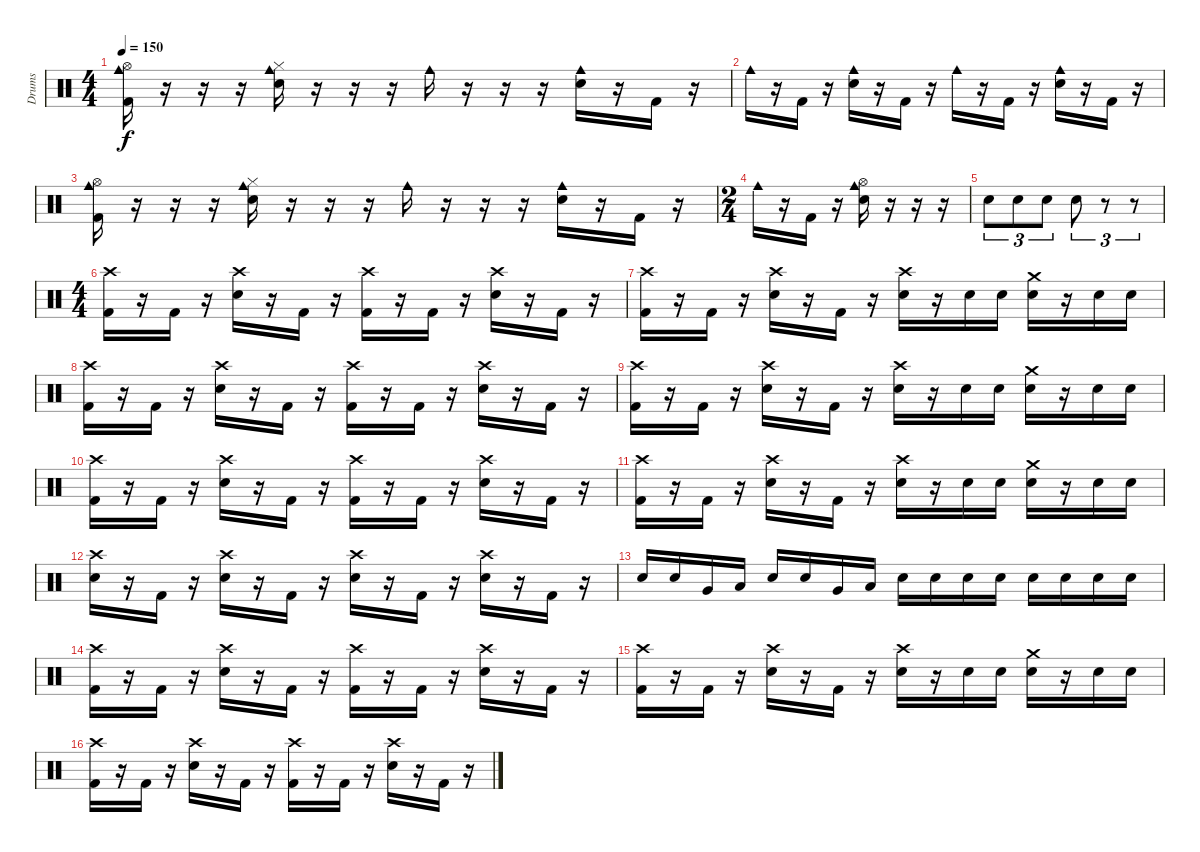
\track ("Drums" "Drums") {instrument percussion}
\staff {score}
\articulation defaults
\ts (4 4)
\tempo 150
\clef neutral
\ks c
("Cowbell medium (hit)" "Hi-Hat (open)" "Kick (hit) 2").16{dy f} r.16 r.16 r.16 ("Cowbell medium (hit)" "Hi-Hat (closed)" "Snare (hit) 2").16 r.16 r.16 r.16 "Cowbell medium (hit)".16 r.16 r.16 r.16 ("Cowbell medium (hit)" "Snare (hit) 2").16 r.16 "Kick (hit) 2".16 r.16 |
"Cowbell medium (hit)".16 r.16 "Kick (hit) 2".16 r.16 ("Cowbell medium (hit)" "Snare (hit) 2").16 r.16 "Kick (hit) 2".16 r.16 "Cowbell medium (hit)".16 r.16 "Kick (hit) 2".16 r.16 ("Cowbell medium (hit)" "Snare (hit) 2").16 r.16 "Kick (hit) 2".16 r.16 |
("Cowbell medium (hit)" "Hi-Hat (open)" "Kick (hit) 2").16 r.16 r.16 r.16 ("Cowbell medium (hit)" "Hi-Hat (closed)" "Snare (hit) 2").16 r.16 r.16 r.16 "Cowbell medium (hit)".16 r.16 r.16 r.16 ("Cowbell medium (hit)" "Snare (hit) 2").16 r.16 "Kick (hit) 2".16 r.16 |
\ts (2 4)
"Cowbell medium (hit)".16 r.16 "Kick (hit) 2".16 r.16 ("Cowbell medium (hit)" "Hi-Hat (open)" "Snare (hit) 2").16 r.16 r.16 r.16 |
"Snare (hit) 2".8{tu (3 2)} "Snare (hit) 2".8{tu (3 2)} "Snare (hit) 2".8{tu (3 2)} "Snare (hit) 2".8{tu (3 2)} r.8{tu (3 2)} r.8{tu (3 2)} |
\ts (4 4)
("Crash high (hit)" "Kick (hit) 2").16 r.16 "Kick (hit) 2".16 r.16 ("Crash high (hit)" "Snare (hit) 2").16 r.16 "Kick (hit) 2".16 r.16 ("Crash high (hit)" "Kick (hit) 2").16 r.16 "Kick (hit) 2".16 r.16 ("Crash high (hit)" "Snare (hit) 2").16 r.16 "Kick (hit) 2".16 r.16 |
("Crash high (hit)" "Kick (hit) 2").16 r.16 "Kick (hit) 2".16 r.16 ("Crash high (hit)" "Snare (hit) 2").16 r.16 "Kick (hit) 2".16 r.16 ("Crash high (hit)" "Snare (hit) 2").16 r.16 "Snare (hit) 2".16 "Snare (hit) 2".16 ("Crash medium (hit)" "Snare (hit) 2").16 r.16 "Snare (hit) 2".16 "Snare (hit) 2".16 |
("Crash high (hit)" "Kick (hit) 2").16 r.16 "Kick (hit) 2".16 r.16 ("Crash high (hit)" "Snare (hit) 2").16 r.16 "Kick (hit) 2".16 r.16 ("Crash high (hit)" "Kick (hit) 2").16 r.16 "Kick (hit) 2".16 r.16 ("Crash high (hit)" "Snare (hit) 2").16 r.16 "Kick (hit) 2".16 r.16 |
("Crash high (hit)" "Kick (hit) 2").16 r.16 "Kick (hit) 2".16 r.16 ("Crash high (hit)" "Snare (hit) 2").16 r.16 "Kick (hit) 2".16 r.16 ("Crash high (hit)" "Snare (hit) 2").16 r.16 "Snare (hit) 2".16 "Snare (hit) 2".16 ("Crash medium (hit)" "Snare (hit) 2").16 r.16 "Snare (hit) 2".16 "Snare (hit) 2".16 |
("Crash high (hit)" "Kick (hit) 2").16 r.16 "Kick (hit) 2".16 r.16 ("Crash high (hit)" "Snare (hit) 2").16 r.16 "Kick (hit) 2".16 r.16 ("Crash high (hit)" "Kick (hit) 2").16 r.16 "Kick (hit) 2".16 r.16 ("Crash high (hit)" "Snare (hit) 2").16 r.16 "Kick (hit) 2".16 r.16 |
("Crash high (hit)" "Kick (hit) 2").16 r.16 "Kick (hit) 2".16 r.16 ("Crash high (hit)" "Snare (hit) 2").16 r.16 "Kick (hit) 2".16 r.16 ("Crash high (hit)" "Snare (hit) 2").16 r.16 "Snare (hit) 2".16 "Snare (hit) 2".16 ("Crash medium (hit)" "Snare (hit) 2").16 r.16 "Snare (hit) 2".16 "Snare (hit) 2".16 |
("Crash high (hit)" "Snare (hit) 2").16 r.16 "Kick (hit) 2".16 r.16 ("Crash high (hit)" "Snare (hit) 2").16 r.16 "Kick (hit) 2".16 r.16 ("Crash high (hit)" "Snare (hit) 2").16 r.16 "Kick (hit) 2".16 r.16 ("Crash high (hit)" "Snare (hit) 2").16 r.16 "Kick (hit) 2".16 r.16 |
"Snare (hit) 2".16 "Snare (hit) 2".16 "Very Low Tom (hit)".16 "Low Floor Tom (hit)".16 "Snare (hit) 2".16 "Snare (hit) 2".16 "Very Low Tom (hit)".16 "Low Floor Tom (hit)".16 "Snare (hit) 2".16 "Snare (hit) 2".16 "Snare (hit) 2".16 "Snare (hit) 2".16 "Snare (hit) 2".16 "Snare (hit) 2".16 "Snare (hit) 2".16 "Snare (hit) 2".16 |
("Crash high (hit)" "Kick (hit) 2").16 r.16 "Kick (hit) 2".16 r.16 ("Crash high (hit)" "Snare (hit) 2").16 r.16 "Kick (hit) 2".16 r.16 ("Crash high (hit)" "Kick (hit) 2").16 r.16 "Kick (hit) 2".16 r.16 ("Crash high (hit)" "Snare (hit) 2").16 r.16 "Kick (hit) 2".16 r.16 |
("Crash high (hit)" "Kick (hit) 2").16 r.16 "Kick (hit) 2".16 r.16 ("Crash high (hit)" "Snare (hit) 2").16 r.16 "Kick (hit) 2".16 r.16 ("Crash high (hit)" "Snare (hit) 2").16 r.16 "Snare (hit) 2".16 "Snare (hit) 2".16 ("Crash medium (hit)" "Snare (hit) 2").16 r.16 "Snare (hit) 2".16 "Snare (hit) 2".16 |
("Crash high (hit)" "Kick (hit) 2").16 r.16 "Kick (hit) 2".16 r.16 ("Crash high (hit)" "Snare (hit) 2").16 r.16 "Kick (hit) 2".16 r.16 ("Crash high (hit)" "Kick (hit) 2").16 r.16 "Kick (hit) 2".16 r.16 ("Crash high (hit)" "Snare (hit) 2").16 r.16 "Kick (hit) 2".16 r.16
